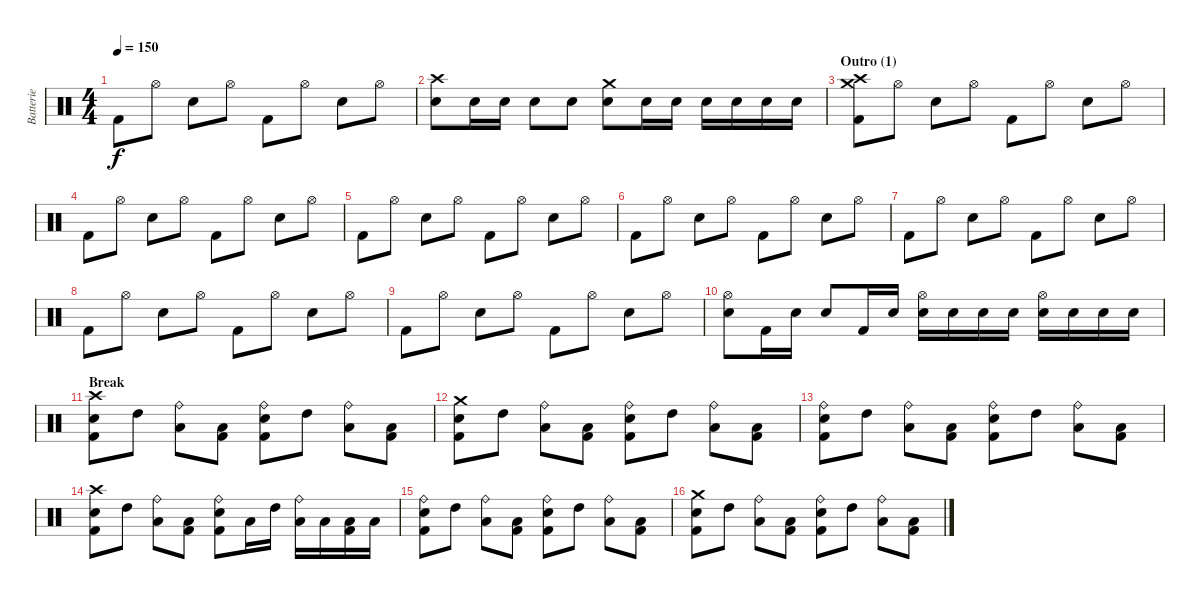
\track ("Batterie" "Batterie") {instrument percussion}
\staff {score}
\articulation defaults
\ts (4 4)
\tempo 150
\clef neutral
\ks c "Kick (hit) 2".8{dy f} "Hi-Hat (open)".8 "Electric Snare (hit)".8 "Hi-Hat (open)".8 "Kick (hit) 2".8 "Hi-Hat (open)".8 "Electric Snare (hit)".8 "Hi-Hat (open)".8
|
("Crash high (hit)" "Electric Snare (hit)").8 "Electric Snare (hit)".16 "Electric Snare (hit)".16 "Electric Snare (hit)".8 "Electric Snare (hit)".8 ("Crash medium (hit)" "Electric Snare (hit)").8 "Electric Snare (hit)".16 "Electric Snare (hit)".16 "Electric Snare (hit)".16 "Electric Snare (hit)".16 "Electric Snare (hit)".16 "Electric Snare (hit)".16 |
\section ("" "Outro (1)")
("Crash high (hit)" "Crash medium (hit)" "Kick (hit) 2").8 "Hi-Hat (open)".8 "Electric Snare (hit)".8 "Hi-Hat (open)".8 "Kick (hit) 2".8 "Hi-Hat (open)".8 "Electric Snare (hit)".8 "Hi-Hat (open)".8 |
"Kick (hit) 2".8 "Hi-Hat (open)".8 "Electric Snare (hit)".8 "Hi-Hat (open)".8 "Kick (hit) 2".8 "Hi-Hat (open)".8 "Electric Snare (hit)".8 "Hi-Hat (open)".8 |
"Kick (hit) 2".8 "Hi-Hat (open)".8 "Electric Snare (hit)".8 "Hi-Hat (open)".8 "Kick (hit) 2".8 "Hi-Hat (open)".8 "Electric Snare (hit)".8 "Hi-Hat (open)".8 |
"Kick (hit) 2".8 "Hi-Hat (open)".8 "Electric Snare (hit)".8 "Hi-Hat (open)".8 "Kick (hit) 2".8 "Hi-Hat (open)".8 "Electric Snare (hit)".8 "Hi-Hat (open)".8 |
"Kick (hit) 2".8 "Hi-Hat (open)".8 "Electric Snare (hit)".8 "Hi-Hat (open)".8 "Kick (hit) 2".8 "Hi-Hat (open)".8 "Electric Snare (hit)".8 "Hi-Hat (open)".8 |
"Kick (hit) 2".8 "Hi-Hat (open)".8 "Electric Snare (hit)".8 "Hi-Hat (open)".8 "Kick (hit) 2".8 "Hi-Hat (open)".8 "Electric Snare (hit)".8 "Hi-Hat (open)".8 |
"Kick (hit) 2".8 "Hi-Hat (open)".8 "Electric Snare (hit)".8 "Hi-Hat (open)".8 "Kick (hit) 2".8 "Hi-Hat (open)".8 "Electric Snare (hit)".8 "Hi-Hat (open)".8 |
("Hi-Hat (open)" "Electric Snare (hit)").8 "Kick (hit) 2".16 "Electric Snare (hit)".16 "Electric Snare (hit)".8 "Kick (hit) 2".16 "Electric Snare (hit)".16 ("Hi-Hat (open)" "Electric Snare (hit)").16 "Electric Snare (hit)".16 "Electric Snare (hit)".16 "Electric Snare (hit)".16 ("Hi-Hat (open)" "Electric Snare (hit)").16 "Electric Snare (hit)".16 "Electric Snare (hit)".16 "Electric Snare (hit)".16 |
\section ("" "Break")
("Crash high (hit)" "Electric Snare (hit)" "Kick (hit) 2").8 "High Tom (hit)".8 ("Ride (bell)" "Low Tom (hit)").8 ("Low Floor Tom (hit)" "Kick (hit) 2").8 ("Ride (bell)" "Electric Snare (hit)" "Kick (hit) 2").8 "High Tom (hit)".8 ("Ride (bell)" "Low Tom (hit)").8 ("Low Floor Tom (hit)" "Kick (hit) 2").8 |
("Crash medium (hit)" "Electric Snare (hit)" "Kick (hit) 2").8 "High Tom (hit)".8 ("Ride (bell)" "Low Tom (hit)").8 ("Low Floor Tom (hit)" "Kick (hit) 2").8 ("Ride (bell)" "Electric Snare (hit)" "Kick (hit) 2").8 "High Tom (hit)".8 ("Ride (bell)" "Low Tom (hit)").8 ("Low Floor Tom (hit)" "Kick (hit) 2").8 |
("Ride (bell)" "Electric Snare (hit)" "Kick (hit) 2").8 "High Tom (hit)".8 ("Ride (bell)" "Low Tom (hit)").8 ("Low Floor Tom (hit)" "Kick (hit) 2").8 ("Ride (bell)" "Electric Snare (hit)" "Kick (hit) 2").8 "High Tom (hit)".8 ("Ride (bell)" "Low Tom (hit)").8 ("Low Floor Tom (hit)" "Kick (hit) 2").8 |
("Crash high (hit)" "Electric Snare (hit)" "Kick (hit) 2").8 "High Tom (hit)".8 ("Ride (bell)" "Low Tom (hit)").8 ("Low Floor Tom (hit)" "Kick (hit) 2").8 ("Ride (bell)" "Electric Snare (hit)" "Kick (hit) 2").8 "Low Tom (hit)".16 "High Tom (hit)".16 ("Ride (bell)" "Low Tom (hit)").16 "Low Tom (hit)".16 ("Low Floor Tom (hit)" "Kick (hit) 2").16 "Low Floor Tom (hit)".16 |
("Ride (bell)" "Electric Snare (hit)" "Kick (hit) 2").8 "High Tom (hit)".8 ("Ride (bell)" "Low Tom (hit)").8 ("Low Floor Tom (hit)" "Kick (hit) 2").8 ("Ride (bell)" "Electric Snare (hit)" "Kick (hit) 2").8 "High Tom (hit)".8 ("Ride (bell)" "Low Tom (hit)").8 ("Low Floor Tom (hit)" "Kick (hit) 2").8 |
("Crash medium (hit)" "Electric Snare (hit)" "Kick (hit) 2").8 "High Tom (hit)".8 ("Ride (bell)" "Low Tom (hit)").8 ("Low Floor Tom (hit)" "Kick (hit) 2").8 ("Ride (bell)" "Electric Snare (hit)" "Kick (hit) 2").8 "High Tom (hit)".8 ("Ride (bell)" "Low Tom (hit)").8 ("Low Floor Tom (hit)" "Kick (hit) 2").8
